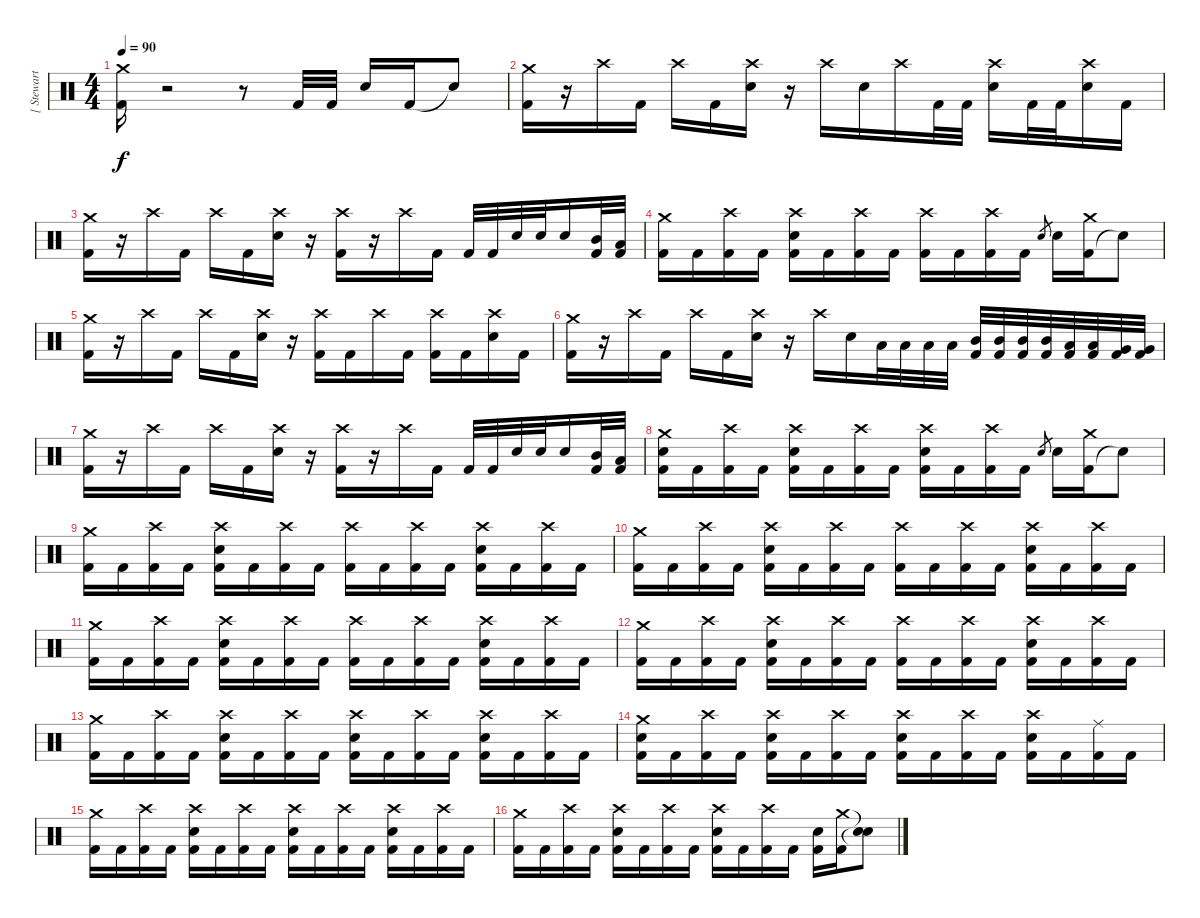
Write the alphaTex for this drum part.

\track ("[ Stewart ]" "[ Stewart ") {instrument percussion}
\staff {score}
\articulation defaults
\ts (4 4)
\tempo 90
\clef neutral
\ks c
("Kick (hit) 2" "Crash medium (hit)").16{dy f} r.2 r.8 "Kick (hit) 2".32 "Kick (hit) 2".32 "Electric Snare (hit)".16 "Kick (hit) 2".16 "Snare (hit)"{t}.8 |
("Kick (hit) 2" "Crash medium (hit)").16 r.16 "Crash high (hit)".16 "Kick (hit) 2".16 "Crash high (hit)".16 "Kick (hit) 2".16 ("Electric Snare (hit)" "Crash high (hit)").16 r.16 "Crash high (hit)".16 "Electric Snare (hit)".16 "Crash high (hit)".16 "Kick (hit) 2".32 "Kick (hit) 2".32 ("Electric Snare (hit)" "Crash high (hit)").16 "Kick (hit) 2".32 "Kick (hit) 2".32 ("Electric Snare (hit)" "Crash high (hit)").16 "Kick (hit) 2".16 |
("Kick (hit) 2" "Crash medium (hit)").16 r.16 "Crash high (hit)".16 "Kick (hit) 2".16 "Crash high (hit)".16 "Kick (hit) 2".16 ("Electric Snare (hit)" "Crash high (hit)").16 r.16 ("Kick (hit) 2" "Crash high (hit)").16 r.16 "Crash high (hit)".16 "Kick (hit) 2".16 "Kick (hit) 2".32 "Kick (hit) 2".32 "Electric Snare (hit)".32 "Electric Snare (hit)".32 "Electric Snare (hit)".16 ("Mid Tom (hit)" "Kick (hit) 2").32 ("Low Tom (hit)" "Kick (hit) 2").32 |
("Kick (hit) 2" "Crash medium (hit)").16 "Kick (hit) 2".16 ("Kick (hit) 2" "Crash high (hit)").16 "Kick (hit) 2".16 ("Kick (hit) 2" "Electric Snare (hit)" "Crash high (hit)").16 "Kick (hit) 2".16 ("Kick (hit) 2" "Crash high (hit)").16 "Kick (hit) 2".16 ("Kick (hit) 2" "Crash high (hit)").16 "Kick (hit) 2".16 ("Kick (hit) 2" "Crash high (hit)").16 "Kick (hit) 2".16 "Electric Snare (hit)".8{gr} "Electric Snare (hit)".16 ("Kick (hit) 2" "Crash medium (hit)").16 "Snare (hit)"{t}.8 |
("Kick (hit) 2" "Crash medium (hit)").16 r.16 "Crash high (hit)".16 "Kick (hit) 2".16 "Crash high (hit)".16 "Kick (hit) 2".16 ("Electric Snare (hit)" "Crash high (hit)").16 r.16 ("Kick (hit) 2" "Crash high (hit)").16 "Kick (hit) 2".16 "Crash high (hit)".16 "Kick (hit) 2".16 ("Kick (hit) 2" "Crash high (hit)").16 "Kick (hit) 2".16 ("Electric Snare (hit)" "Crash high (hit)").16 "Kick (hit) 2".16 |
("Kick (hit) 2" "Crash medium (hit)").16 r.16 "Crash high (hit)".16 "Kick (hit) 2".16 "Crash high (hit)".16 "Kick (hit) 2".16 ("Electric Snare (hit)" "Crash high (hit)").16 r.16 "Crash high (hit)".16 "Electric Snare (hit)".16 "Low Tom (hit)".32 "Low Tom (hit)".32 "Low Tom (hit)".32 "Low Tom (hit)".32 ("Mid Tom (hit)" "Kick (hit) 2").32 ("Mid Tom (hit)" "Kick (hit) 2").32 ("Mid Tom (hit)" "Kick (hit) 2").32 ("Mid Tom (hit)" "Kick (hit) 2").32 ("Low Tom (hit)" "Kick (hit) 2").32 ("Low Tom (hit)" "Kick (hit) 2").32 ("Very Low Tom (hit)" "Kick (hit) 2").32 ("Very Low Tom (hit)" "Kick (hit) 2").32 |
("Kick (hit) 2" "Crash medium (hit)").16 r.16 "Crash high (hit)".16 "Kick (hit) 2".16 "Crash high (hit)".16 "Kick (hit) 2".16 ("Electric Snare (hit)" "Crash high (hit)").16 r.16 ("Kick (hit) 2" "Crash high (hit)").16 r.16 "Crash high (hit)".16 "Kick (hit) 2".16 "Kick (hit) 2".32 "Kick (hit) 2".32 "Electric Snare (hit)".32 "Electric Snare (hit)".32 "Electric Snare (hit)".16 ("Mid Tom (hit)" "Kick (hit) 2").32 ("Low Tom (hit)" "Kick (hit) 2").32 |
("Kick (hit) 2" "Electric Snare (hit)" "Crash medium (hit)").16 "Kick (hit) 2".16 ("Kick (hit) 2" "Crash high (hit)").16 "Kick (hit) 2".16 ("Kick (hit) 2" "Electric Snare (hit)" "Crash high (hit)").16 "Kick (hit) 2".16 ("Kick (hit) 2" "Crash high (hit)").16 "Kick (hit) 2".16 ("Kick (hit) 2" "Electric Snare (hit)" "Crash high (hit)").16 "Kick (hit) 2".16 ("Kick (hit) 2" "Crash high (hit)").16 "Kick (hit) 2".16 "Electric Snare (hit)".8{gr} "Electric Snare (hit)".16 ("Kick (hit) 2" "Crash medium (hit)").16 "Snare (hit)"{t}.8 |
("Kick (hit) 2" "Crash medium (hit)").16 "Kick (hit) 2".16 ("Kick (hit) 2" "Crash high (hit)").16 "Kick (hit) 2".16 ("Kick (hit) 2" "Electric Snare (hit)" "Crash high (hit)").16 "Kick (hit) 2".16 ("Kick (hit) 2" "Crash high (hit)").16 "Kick (hit) 2".16 ("Kick (hit) 2" "Crash high (hit)").16 "Kick (hit) 2".16 ("Kick (hit) 2" "Crash high (hit)").16 "Kick (hit) 2".16 ("Kick (hit) 2" "Electric Snare (hit)" "Crash high (hit)").16 "Kick (hit) 2".16 ("Kick (hit) 2" "Crash high (hit)").16 "Kick (hit) 2".16 |
("Kick (hit) 2" "Crash medium (hit)").16 "Kick (hit) 2".16 ("Kick (hit) 2" "Crash high (hit)").16 "Kick (hit) 2".16 ("Kick (hit) 2" "Electric Snare (hit)" "Crash high (hit)").16 "Kick (hit) 2".16 ("Kick (hit) 2" "Crash high (hit)").16 "Kick (hit) 2".16 ("Kick (hit) 2" "Crash high (hit)").16 "Kick (hit) 2".16 ("Kick (hit) 2" "Crash high (hit)").16 "Kick (hit) 2".16 ("Kick (hit) 2" "Electric Snare (hit)" "Crash high (hit)").16 "Kick (hit) 2".16 ("Kick (hit) 2" "Crash high (hit)").16 "Kick (hit) 2".16 |
("Kick (hit) 2" "Crash medium (hit)").16 "Kick (hit) 2".16 ("Kick (hit) 2" "Crash high (hit)").16 "Kick (hit) 2".16 ("Kick (hit) 2" "Electric Snare (hit)" "Crash high (hit)").16 "Kick (hit) 2".16 ("Kick (hit) 2" "Crash high (hit)").16 "Kick (hit) 2".16 ("Kick (hit) 2" "Crash high (hit)").16 "Kick (hit) 2".16 ("Kick (hit) 2" "Crash high (hit)").16 "Kick (hit) 2".16 ("Kick (hit) 2" "Electric Snare (hit)" "Crash high (hit)").16 "Kick (hit) 2".16 ("Kick (hit) 2" "Crash high (hit)").16 "Kick (hit) 2".16 |
("Kick (hit) 2" "Crash medium (hit)").16 "Kick (hit) 2".16 ("Kick (hit) 2" "Crash high (hit)").16 "Kick (hit) 2".16 ("Kick (hit) 2" "Electric Snare (hit)" "Crash high (hit)").16 "Kick (hit) 2".16 ("Kick (hit) 2" "Crash high (hit)").16 "Kick (hit) 2".16 ("Kick (hit) 2" "Crash high (hit)").16 "Kick (hit) 2".16 ("Kick (hit) 2" "Crash high (hit)").16 "Kick (hit) 2".16 ("Kick (hit) 2" "Electric Snare (hit)" "Crash high (hit)").16 "Kick (hit) 2".16 ("Kick (hit) 2" "Crash high (hit)").16 "Kick (hit) 2".16 |
("Kick (hit) 2" "Crash medium (hit)").16 "Kick (hit) 2".16 ("Kick (hit) 2" "Crash high (hit)").16 "Kick (hit) 2".16 ("Kick (hit) 2" "Electric Snare (hit)" "Crash high (hit)").16 "Kick (hit) 2".16 ("Kick (hit) 2" "Crash high (hit)").16 "Kick (hit) 2".16 ("Kick (hit) 2" "Electric Snare (hit)" "Crash high (hit)").16 "Kick (hit) 2".16 ("Kick (hit) 2" "Crash high (hit)").16 "Kick (hit) 2".16 ("Kick (hit) 2" "Electric Snare (hit)" "Crash high (hit)").16 "Kick (hit) 2".16 ("Kick (hit) 2" "Crash high (hit)").16 "Kick (hit) 2".16 |
("Kick (hit) 2" "Electric Snare (hit)" "Crash medium (hit)").16 "Kick (hit) 2".16 ("Kick (hit) 2" "Crash high (hit)").16 "Kick (hit) 2".16 ("Kick (hit) 2" "Electric Snare (hit)" "Crash high (hit)").16 "Kick (hit) 2".16 ("Kick (hit) 2" "Crash high (hit)").16 "Kick (hit) 2".16 ("Kick (hit) 2" "Electric Snare (hit)" "Crash high (hit)").16 "Kick (hit) 2".16 ("Kick (hit) 2" "Crash high (hit)").16 "Kick (hit) 2".16 ("Kick (hit) 2" "Electric Snare (hit)" "Crash high (hit)").16 "Kick (hit) 2".16 ("Kick (hit) 2" "Ride (middle)").16 "Kick (hit) 2".16 |
("Kick (hit) 2" "Crash medium (hit)").16 "Kick (hit) 2".16 ("Kick (hit) 2" "Crash high (hit)").16 "Kick (hit) 2".16 ("Kick (hit) 2" "Electric Snare (hit)" "Crash high (hit)").16 "Kick (hit) 2".16 ("Kick (hit) 2" "Crash high (hit)").16 "Kick (hit) 2".16 ("Kick (hit) 2" "Electric Snare (hit)" "Crash high (hit)").16 "Kick (hit) 2".16 ("Kick (hit) 2" "Crash high (hit)").16 "Kick (hit) 2".16 ("Kick (hit) 2" "Electric Snare (hit)" "Crash high (hit)").16 "Kick (hit) 2".16 ("Kick (hit) 2" "Crash high (hit)").16 "Kick (hit) 2".16 |
("Kick (hit) 2" "Crash medium (hit)").16 "Kick (hit) 2".16 ("Kick (hit) 2" "Crash high (hit)").16 "Kick (hit) 2".16 ("Kick (hit) 2" "Electric Snare (hit)" "Crash high (hit)").16 "Kick (hit) 2".16 ("Kick (hit) 2" "Crash high (hit)").16 "Kick (hit) 2".16 ("Kick (hit) 2" "Electric Snare (hit)" "Crash high (hit)").16 "Kick (hit) 2".16 ("Kick (hit) 2" "Crash high (hit)").16 "Kick (hit) 2".16 ("Kick (hit) 2" "Electric Snare (hit)").16 ("Kick (hit) 2" "Crash medium (hit)").16 ("Snare (hit)"{t} "Snare (hit)"{t}).8
